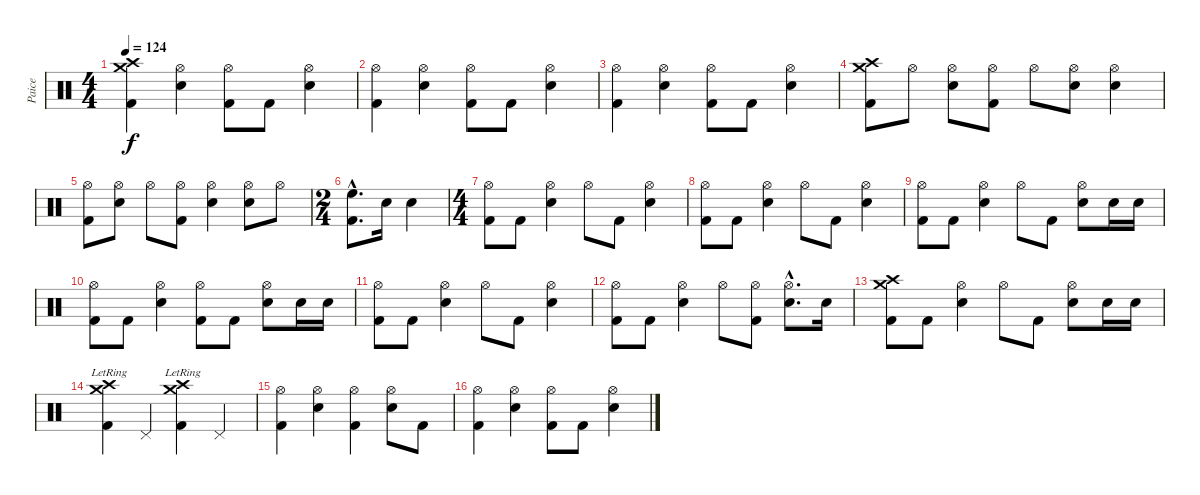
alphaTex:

\track ("Paice" "Paice") {instrument percussion}
\staff {score}
\articulation defaults
\ts (4 4)
\tempo 124
\clef neutral
\ks c
("Crash high (hit)" "Crash medium (hit)" "Kick (hit) 2").4{dy f} ("Hi-Hat (open)" "Electric Snare (hit)").4 ("Hi-Hat (open)" "Kick (hit) 2").8 "Kick (hit) 2".8 ("Hi-Hat (open)" "Electric Snare (hit)").4 |
("Hi-Hat (open)" "Kick (hit) 2").4 ("Hi-Hat (open)" "Electric Snare (hit)").4 ("Hi-Hat (open)" "Kick (hit) 2").8 "Kick (hit) 2".8 ("Hi-Hat (open)" "Electric Snare (hit)").4 |
("Hi-Hat (open)" "Kick (hit) 2").4 ("Hi-Hat (open)" "Electric Snare (hit)").4 ("Hi-Hat (open)" "Kick (hit) 2").8 "Kick (hit) 2".8 ("Hi-Hat (open)" "Electric Snare (hit)").4 |
("Crash high (hit)" "Crash medium (hit)" "Kick (hit) 2").8 "Hi-Hat (open)".8 ("Hi-Hat (open)" "Electric Snare (hit)").8 ("Hi-Hat (open)" "Kick (hit) 2").8 "Hi-Hat (open)".8 ("Hi-Hat (open)" "Electric Snare (hit)").8 ("Hi-Hat (open)" "Electric Snare (hit)").4 |
("Hi-Hat (open)" "Kick (hit) 2").8 ("Hi-Hat (open)" "Electric Snare (hit)").8 "Hi-Hat (open)".8 ("Hi-Hat (open)" "Kick (hit) 2").8 ("Hi-Hat (open)" "Electric Snare (hit)").4 ("Hi-Hat (open)" "Electric Snare (hit)").8 "Hi-Hat (open)".8 |
\ts (2 4)
("High Floor Tom (hit)"{hac} "Kick (hit) 2"{hac}).8{d} "Electric Snare (hit)".16 "Electric Snare (hit)".4 |
\ts (4 4)
("Hi-Hat (open)" "Kick (hit) 2").8 "Kick (hit) 2".8 ("Hi-Hat (open)" "Electric Snare (hit)").4 "Hi-Hat (open)".8 "Kick (hit) 2".8 ("Hi-Hat (open)" "Electric Snare (hit)").4 |
("Hi-Hat (open)" "Kick (hit) 2").8 "Kick (hit) 2".8 ("Hi-Hat (open)" "Electric Snare (hit)").4 "Hi-Hat (open)".8 "Kick (hit) 2".8 ("Hi-Hat (open)" "Electric Snare (hit)").4 |
("Hi-Hat (open)" "Kick (hit) 2").8 "Kick (hit) 2".8 ("Hi-Hat (open)" "Electric Snare (hit)").4 "Hi-Hat (open)".8 "Kick (hit) 2".8 ("Hi-Hat (open)" "Electric Snare (hit)").8 "Electric Snare (hit)".16 "Electric Snare (hit)".16 |
("Hi-Hat (open)" "Kick (hit) 2").8 "Kick (hit) 2".8 ("Hi-Hat (open)" "Electric Snare (hit)").4 ("Hi-Hat (open)" "Kick (hit) 2").8 "Kick (hit) 2".8 ("Hi-Hat (open)" "Electric Snare (hit)").8 "Electric Snare (hit)".16 "Electric Snare (hit)".16 |
("Hi-Hat (open)" "Kick (hit) 2").8 "Kick (hit) 2".8 ("Hi-Hat (open)" "Electric Snare (hit)").4 "Hi-Hat (open)".8 "Kick (hit) 2".8 ("Hi-Hat (open)" "Electric Snare (hit)").4 |
("Hi-Hat (open)" "Kick (hit) 2").8 "Kick (hit) 2".8 ("Hi-Hat (open)" "Electric Snare (hit)").4 "Hi-Hat (open)".8 ("Hi-Hat (open)" "Kick (hit) 2").8 ("Hi-Hat (open)"{hac} "Electric Snare (hit)"{hac}).8{d} "Electric Snare (hit)".16 |
("Crash high (hit)" "Crash medium (hit)" "Kick (hit) 2").8 "Kick (hit) 2".8 ("Hi-Hat (open)" "Electric Snare (hit)").4 "Hi-Hat (open)".8 "Kick (hit) 2".8 ("Hi-Hat (open)" "Electric Snare (hit)").8 "Electric Snare (hit)".16 "Electric Snare (hit)".16 |
("Crash high (hit)"{lr} "Crash medium (hit)"{lr} "Kick (hit) 2").4 "Pedal Hi-Hat (hit)".4 ("Crash high (hit)"{lr} "Crash medium (hit)"{lr} "Kick (hit) 2").4 "Pedal Hi-Hat (hit)".4 |
("Hi-Hat (open)" "Kick (hit) 2").4 ("Hi-Hat (open)" "Electric Snare (hit)").4 ("Hi-Hat (open)" "Kick (hit) 2").4 ("Hi-Hat (open)" "Electric Snare (hit)").8 "Kick (hit) 2".8 |
("Hi-Hat (open)" "Kick (hit) 2").4 ("Hi-Hat (open)" "Electric Snare (hit)").4 ("Hi-Hat (open)" "Kick (hit) 2").8 "Kick (hit) 2".8 ("Hi-Hat (open)" "Electric Snare (hit)").4
